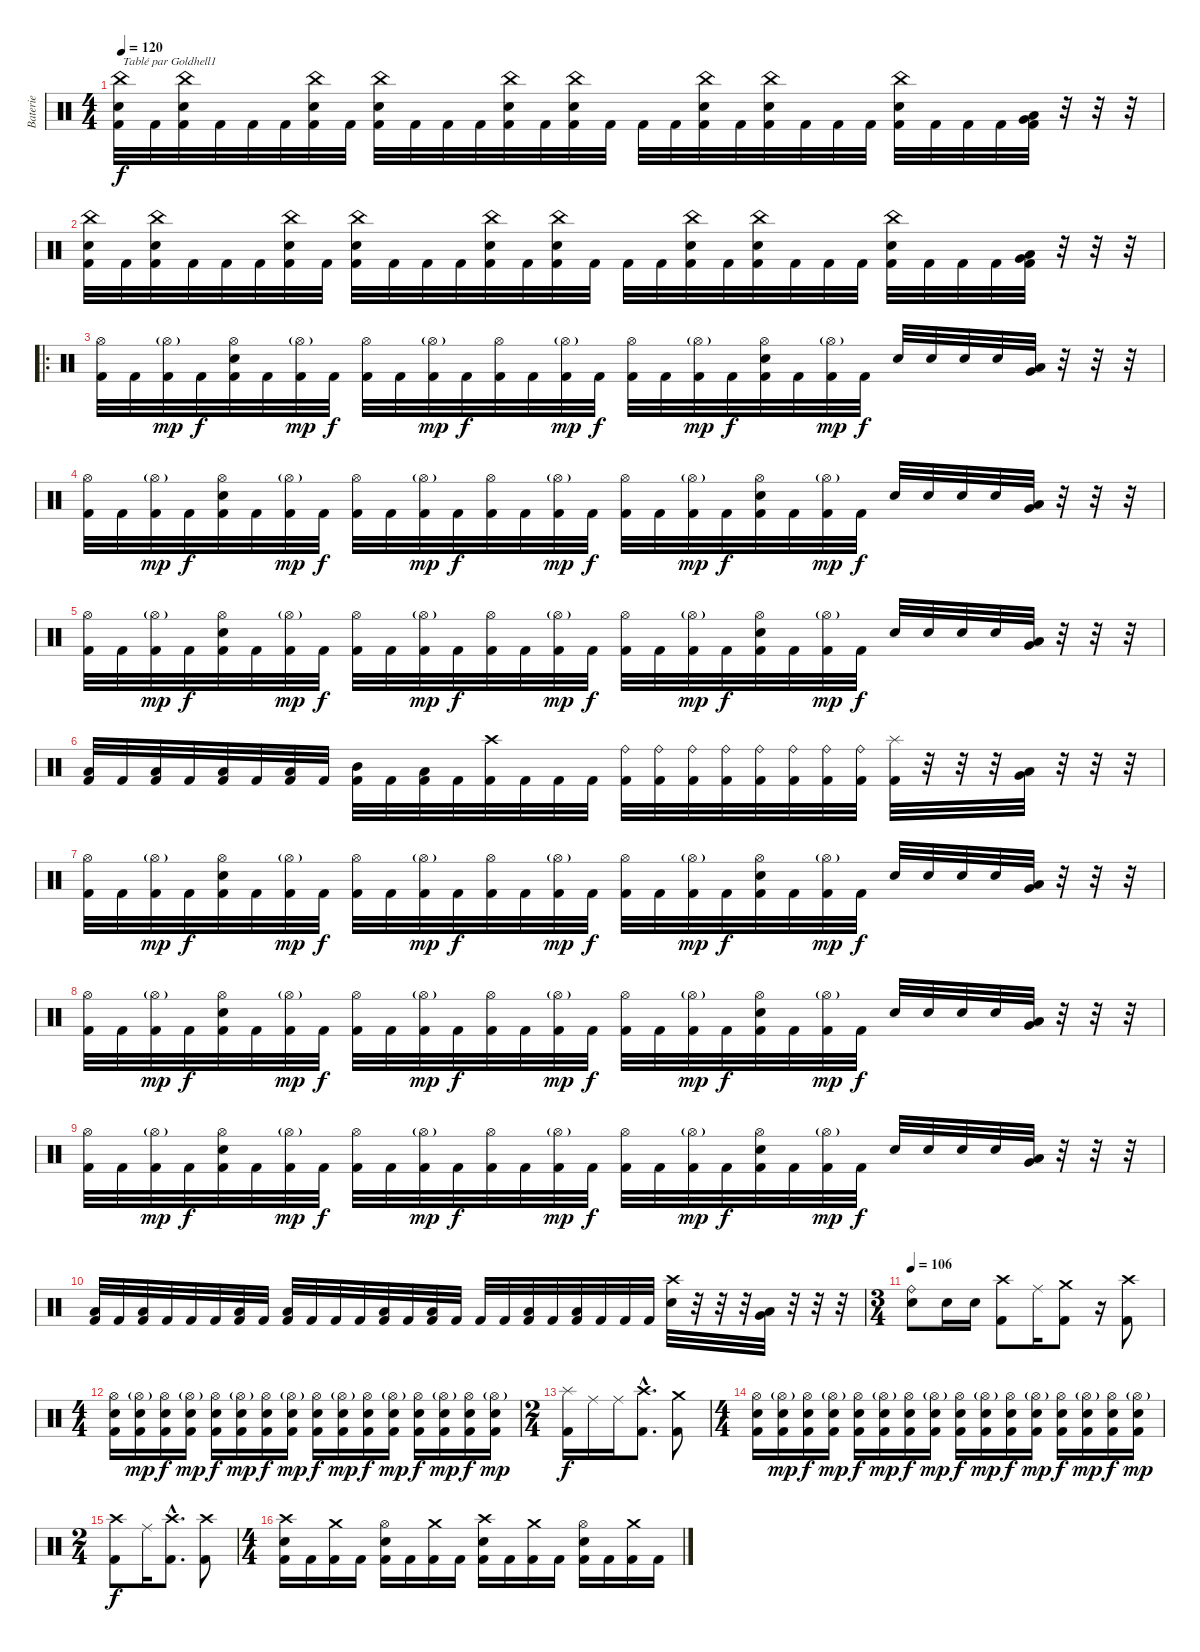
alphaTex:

\track ("Baterie" "Baterie") {instrument percussion}
\staff {score}
\articulation defaults
\ts (4 4)
\tempo 120
\clef neutral
\ks c
("China (hit)" "Electric Snare (hit)" "Kick (hit) 2").32{txt "Tablé par Goldhell1" dy f} "Kick (hit) 2".32 ("China (hit)" "Electric Snare (hit)" "Kick (hit) 2").32 "Kick (hit) 2".32 "Kick (hit) 2".32 "Kick (hit) 2".32 ("China (hit)" "Electric Snare (hit)" "Kick (hit) 2").32 "Kick (hit) 2".32 ("China (hit)" "Electric Snare (hit)" "Kick (hit) 2").32 "Kick (hit) 2".32 "Kick (hit) 2".32 "Kick (hit) 2".32 ("China (hit)" "Electric Snare (hit)" "Kick (hit) 2").32 "Kick (hit) 2".32 ("China (hit)" "Electric Snare (hit)" "Kick (hit) 2").32 "Kick (hit) 2".32 "Kick (hit) 2".32 "Kick (hit) 2".32 ("China (hit)" "Electric Snare (hit)" "Kick (hit) 2").32 "Kick (hit) 2".32 ("China (hit)" "Electric Snare (hit)" "Kick (hit) 2").32 "Kick (hit) 2".32 "Kick (hit) 2".32 "Kick (hit) 2".32 ("China (hit)" "Electric Snare (hit)" "Kick (hit) 2").32 "Kick (hit) 2".32 "Kick (hit) 2".32 "Kick (hit) 2".32 ("Low Tom (hit)" "Very Low Tom (hit)" "Kick (hit) 2").32 r.32 r.32 r.32 |
("China (hit)" "Electric Snare (hit)" "Kick (hit) 2").32 "Kick (hit) 2".32 ("China (hit)" "Electric Snare (hit)" "Kick (hit) 2").32 "Kick (hit) 2".32 "Kick (hit) 2".32 "Kick (hit) 2".32 ("China (hit)" "Electric Snare (hit)" "Kick (hit) 2").32 "Kick (hit) 2".32 ("China (hit)" "Electric Snare (hit)" "Kick (hit) 2").32 "Kick (hit) 2".32 "Kick (hit) 2".32 "Kick (hit) 2".32 ("China (hit)" "Electric Snare (hit)" "Kick (hit) 2").32 "Kick (hit) 2".32 ("China (hit)" "Electric Snare (hit)" "Kick (hit) 2").32 "Kick (hit) 2".32 "Kick (hit) 2".32 "Kick (hit) 2".32 ("China (hit)" "Electric Snare (hit)" "Kick (hit) 2").32 "Kick (hit) 2".32 ("China (hit)" "Electric Snare (hit)" "Kick (hit) 2").32 "Kick (hit) 2".32 "Kick (hit) 2".32 "Kick (hit) 2".32 ("China (hit)" "Electric Snare (hit)" "Kick (hit) 2").32 "Kick (hit) 2".32 "Kick (hit) 2".32 "Kick (hit) 2".32 ("Low Tom (hit)" "Very Low Tom (hit)" "Kick (hit) 2").32 r.32 r.32 r.32 |
\ro
("Hi-Hat (open)" "Kick (hit) 2").32 "Kick (hit) 2".32 ("Hi-Hat (open)"{g} "Kick (hit) 2").32{dy mp} "Kick (hit) 2".32{dy f} ("Hi-Hat (open)" "Electric Snare (hit)" "Kick (hit) 2").32 "Kick (hit) 2".32 ("Hi-Hat (open)"{g} "Kick (hit) 2").32{dy mp} "Kick (hit) 2".32{dy f} ("Hi-Hat (open)" "Kick (hit) 2").32 "Kick (hit) 2".32 ("Hi-Hat (open)"{g} "Kick (hit) 2").32{dy mp} "Kick (hit) 2".32{dy f} ("Hi-Hat (open)" "Kick (hit) 2").32 "Kick (hit) 2".32 ("Hi-Hat (open)"{g} "Kick (hit) 2").32{dy mp} "Kick (hit) 2".32{dy f} ("Hi-Hat (open)" "Kick (hit) 2").32 "Kick (hit) 2".32 ("Hi-Hat (open)"{g} "Kick (hit) 2").32{dy mp} "Kick (hit) 2".32{dy f} ("Hi-Hat (open)" "Electric Snare (hit)" "Kick (hit) 2").32 "Kick (hit) 2".32 ("Hi-Hat (open)"{g} "Kick (hit) 2").32{dy mp} "Kick (hit) 2".32{dy f} "Electric Snare (hit)".32 "Electric Snare (hit)".32 "Electric Snare (hit)".32 "Electric Snare (hit)".32 ("Very Low Tom (hit)" "Low Tom (hit)").32 r.32 r.32 r.32 |
("Hi-Hat (open)" "Kick (hit) 2").32 "Kick (hit) 2".32 ("Hi-Hat (open)"{g} "Kick (hit) 2").32{dy mp} "Kick (hit) 2".32{dy f} ("Hi-Hat (open)" "Electric Snare (hit)" "Kick (hit) 2").32 "Kick (hit) 2".32 ("Hi-Hat (open)"{g} "Kick (hit) 2").32{dy mp} "Kick (hit) 2".32{dy f} ("Hi-Hat (open)" "Kick (hit) 2").32 "Kick (hit) 2".32 ("Hi-Hat (open)"{g} "Kick (hit) 2").32{dy mp} "Kick (hit) 2".32{dy f} ("Hi-Hat (open)" "Kick (hit) 2").32 "Kick (hit) 2".32 ("Hi-Hat (open)"{g} "Kick (hit) 2").32{dy mp} "Kick (hit) 2".32{dy f} ("Hi-Hat (open)" "Kick (hit) 2").32 "Kick (hit) 2".32 ("Hi-Hat (open)"{g} "Kick (hit) 2").32{dy mp} "Kick (hit) 2".32{dy f} ("Hi-Hat (open)" "Electric Snare (hit)" "Kick (hit) 2").32 "Kick (hit) 2".32 ("Hi-Hat (open)"{g} "Kick (hit) 2").32{dy mp} "Kick (hit) 2".32{dy f} "Electric Snare (hit)".32 "Electric Snare (hit)".32 "Electric Snare (hit)".32 "Electric Snare (hit)".32 ("Very Low Tom (hit)" "Low Tom (hit)").32 r.32 r.32 r.32 |
("Hi-Hat (open)" "Kick (hit) 2").32 "Kick (hit) 2".32 ("Hi-Hat (open)"{g} "Kick (hit) 2").32{dy mp} "Kick (hit) 2".32{dy f} ("Hi-Hat (open)" "Electric Snare (hit)" "Kick (hit) 2").32 "Kick (hit) 2".32 ("Hi-Hat (open)"{g} "Kick (hit) 2").32{dy mp} "Kick (hit) 2".32{dy f} ("Hi-Hat (open)" "Kick (hit) 2").32 "Kick (hit) 2".32 ("Hi-Hat (open)"{g} "Kick (hit) 2").32{dy mp} "Kick (hit) 2".32{dy f} ("Hi-Hat (open)" "Kick (hit) 2").32 "Kick (hit) 2".32 ("Hi-Hat (open)"{g} "Kick (hit) 2").32{dy mp} "Kick (hit) 2".32{dy f} ("Hi-Hat (open)" "Kick (hit) 2").32 "Kick (hit) 2".32 ("Hi-Hat (open)"{g} "Kick (hit) 2").32{dy mp} "Kick (hit) 2".32{dy f} ("Hi-Hat (open)" "Electric Snare (hit)" "Kick (hit) 2").32 "Kick (hit) 2".32 ("Hi-Hat (open)"{g} "Kick (hit) 2").32{dy mp} "Kick (hit) 2".32{dy f} "Electric Snare (hit)".32 "Electric Snare (hit)".32 "Electric Snare (hit)".32 "Electric Snare (hit)".32 ("Very Low Tom (hit)" "Low Tom (hit)").32 r.32 r.32 r.32 |
("Low Tom (hit)" "Kick (hit) 2").32 "Kick (hit) 2".32 ("Low Tom (hit)" "Kick (hit) 2").32 "Kick (hit) 2".32 ("Low Tom (hit)" "Kick (hit) 2").32 "Kick (hit) 2".32 ("Low Tom (hit)" "Kick (hit) 2").32 "Kick (hit) 2".32 ("Mid Tom (hit)" "Kick (hit) 2").32 "Kick (hit) 2".32 ("Low Tom (hit)" "Kick (hit) 2").32 "Kick (hit) 2".32 ("Crash high (hit)" "Kick (hit) 2").32 "Kick (hit) 2".32 "Kick (hit) 2".32 "Kick (hit) 2".32 ("Ride (bell)" "Kick (hit) 2").32 ("Ride (bell)" "Kick (hit) 2").32 ("Ride (bell)" "Kick (hit) 2").32 ("Ride (bell)" "Kick (hit) 2").32 ("Ride (bell)" "Kick (hit) 2").32 ("Ride (bell)" "Kick (hit) 2").32 ("Ride (bell)" "Kick (hit) 2").32 ("Ride (bell)" "Kick (hit) 2").32 ("Splash (hit)" "Kick (hit) 2").32 r.32 r.32 r.32 ("Very Low Tom (hit)" "Low Tom (hit)").32 r.32 r.32 r.32 |
("Hi-Hat (open)" "Kick (hit) 2").32 "Kick (hit) 2".32 ("Hi-Hat (open)"{g} "Kick (hit) 2").32{dy mp} "Kick (hit) 2".32{dy f} ("Hi-Hat (open)" "Electric Snare (hit)" "Kick (hit) 2").32 "Kick (hit) 2".32 ("Hi-Hat (open)"{g} "Kick (hit) 2").32{dy mp} "Kick (hit) 2".32{dy f} ("Hi-Hat (open)" "Kick (hit) 2").32 "Kick (hit) 2".32 ("Hi-Hat (open)"{g} "Kick (hit) 2").32{dy mp} "Kick (hit) 2".32{dy f} ("Hi-Hat (open)" "Kick (hit) 2").32 "Kick (hit) 2".32 ("Hi-Hat (open)"{g} "Kick (hit) 2").32{dy mp} "Kick (hit) 2".32{dy f} ("Hi-Hat (open)" "Kick (hit) 2").32 "Kick (hit) 2".32 ("Hi-Hat (open)"{g} "Kick (hit) 2").32{dy mp} "Kick (hit) 2".32{dy f} ("Hi-Hat (open)" "Electric Snare (hit)" "Kick (hit) 2").32 "Kick (hit) 2".32 ("Hi-Hat (open)"{g} "Kick (hit) 2").32{dy mp} "Kick (hit) 2".32{dy f} "Electric Snare (hit)".32 "Electric Snare (hit)".32 "Electric Snare (hit)".32 "Electric Snare (hit)".32 ("Very Low Tom (hit)" "Low Tom (hit)").32 r.32 r.32 r.32 |
("Hi-Hat (open)" "Kick (hit) 2").32 "Kick (hit) 2".32 ("Hi-Hat (open)"{g} "Kick (hit) 2").32{dy mp} "Kick (hit) 2".32{dy f} ("Hi-Hat (open)" "Electric Snare (hit)" "Kick (hit) 2").32 "Kick (hit) 2".32 ("Hi-Hat (open)"{g} "Kick (hit) 2").32{dy mp} "Kick (hit) 2".32{dy f} ("Hi-Hat (open)" "Kick (hit) 2").32 "Kick (hit) 2".32 ("Hi-Hat (open)"{g} "Kick (hit) 2").32{dy mp} "Kick (hit) 2".32{dy f} ("Hi-Hat (open)" "Kick (hit) 2").32 "Kick (hit) 2".32 ("Hi-Hat (open)"{g} "Kick (hit) 2").32{dy mp} "Kick (hit) 2".32{dy f} ("Hi-Hat (open)" "Kick (hit) 2").32 "Kick (hit) 2".32 ("Hi-Hat (open)"{g} "Kick (hit) 2").32{dy mp} "Kick (hit) 2".32{dy f} ("Hi-Hat (open)" "Electric Snare (hit)" "Kick (hit) 2").32 "Kick (hit) 2".32 ("Hi-Hat (open)"{g} "Kick (hit) 2").32{dy mp} "Kick (hit) 2".32{dy f} "Electric Snare (hit)".32 "Electric Snare (hit)".32 "Electric Snare (hit)".32 "Electric Snare (hit)".32 ("Very Low Tom (hit)" "Low Tom (hit)").32 r.32 r.32 r.32 |
("Hi-Hat (open)" "Kick (hit) 2").32 "Kick (hit) 2".32 ("Hi-Hat (open)"{g} "Kick (hit) 2").32{dy mp} "Kick (hit) 2".32{dy f} ("Hi-Hat (open)" "Electric Snare (hit)" "Kick (hit) 2").32 "Kick (hit) 2".32 ("Hi-Hat (open)"{g} "Kick (hit) 2").32{dy mp} "Kick (hit) 2".32{dy f} ("Hi-Hat (open)" "Kick (hit) 2").32 "Kick (hit) 2".32 ("Hi-Hat (open)"{g} "Kick (hit) 2").32{dy mp} "Kick (hit) 2".32{dy f} ("Hi-Hat (open)" "Kick (hit) 2").32 "Kick (hit) 2".32 ("Hi-Hat (open)"{g} "Kick (hit) 2").32{dy mp} "Kick (hit) 2".32{dy f} ("Hi-Hat (open)" "Kick (hit) 2").32 "Kick (hit) 2".32 ("Hi-Hat (open)"{g} "Kick (hit) 2").32{dy mp} "Kick (hit) 2".32{dy f} ("Hi-Hat (open)" "Electric Snare (hit)" "Kick (hit) 2").32 "Kick (hit) 2".32 ("Hi-Hat (open)"{g} "Kick (hit) 2").32{dy mp} "Kick (hit) 2".32{dy f} "Electric Snare (hit)".32 "Electric Snare (hit)".32 "Electric Snare (hit)".32 "Electric Snare (hit)".32 ("Very Low Tom (hit)" "Low Tom (hit)").32 r.32 r.32 r.32 |
("Low Tom (hit)" "Kick (hit) 2").32 "Kick (hit) 2".32 ("Low Tom (hit)" "Kick (hit) 2").32 "Kick (hit) 2".32 "Kick (hit) 2".32 "Kick (hit) 2".32 ("Low Tom (hit)" "Kick (hit) 2").32 "Kick (hit) 2".32 ("Low Tom (hit)" "Kick (hit) 2").32 "Kick (hit) 2".32 "Kick (hit) 2".32 "Kick (hit) 2".32 ("Low Tom (hit)" "Kick (hit) 2").32 "Kick (hit) 2".32 ("Low Tom (hit)" "Kick (hit) 2").32 "Kick (hit) 2".32 "Kick (hit) 2".32 "Kick (hit) 2".32 ("Low Tom (hit)" "Kick (hit) 2").32 "Kick (hit) 2".32 ("Low Tom (hit)" "Kick (hit) 2").32 "Kick (hit) 2".32 "Kick (hit) 2".32 "Kick (hit) 2".32 ("Crash high (hit)" "Electric Snare (hit)").32 r.32 r.32 r.32 ("Very Low Tom (hit)" "Low Tom (hit)").32 r.32 r.32 r.32 |
\ts (3 4)
\tempo 106
("Electric Snare (hit)" "Ride (bell)").8 "Electric Snare (hit)".16 "Electric Snare (hit)".16 ("Crash high (hit)" "Kick (hit) 2").8 "Ride (middle)".16 ("Crash medium (hit)" "Kick (hit) 2").8 r.16 ("Crash high (hit)" "Kick (hit) 2").8 |
\ts (4 4)
("Hi-Hat (open)" "Kick (hit) 2" "Electric Snare (hit)").16 ("Hi-Hat (open)"{g} "Kick (hit) 2" "Electric Snare (hit)").16{dy mp} ("Hi-Hat (open)" "Kick (hit) 2" "Electric Snare (hit)").16{dy f} ("Hi-Hat (open)"{g} "Kick (hit) 2" "Electric Snare (hit)").16{dy mp} ("Hi-Hat (open)" "Kick (hit) 2" "Electric Snare (hit)").16{dy f} ("Hi-Hat (open)"{g} "Kick (hit) 2" "Electric Snare (hit)").16{dy mp} ("Hi-Hat (open)" "Kick (hit) 2" "Electric Snare (hit)").16{dy f} ("Hi-Hat (open)"{g} "Kick (hit) 2" "Electric Snare (hit)").16{dy mp} ("Hi-Hat (open)" "Kick (hit) 2" "Electric Snare (hit)").16{dy f} ("Hi-Hat (open)"{g} "Kick (hit) 2" "Electric Snare (hit)").16{dy mp} ("Hi-Hat (open)" "Kick (hit) 2" "Electric Snare (hit)").16{dy f} ("Hi-Hat (open)"{g} "Kick (hit) 2" "Electric Snare (hit)").16{dy mp} ("Hi-Hat (open)" "Kick (hit) 2" "Electric Snare (hit)").16{dy f} ("Hi-Hat (open)"{g} "Kick (hit) 2" "Electric Snare (hit)").16{dy mp} ("Hi-Hat (open)" "Kick (hit) 2" "Electric Snare (hit)").16{dy f} ("Hi-Hat (open)"{g} "Kick (hit) 2" "Electric Snare (hit)").16{dy mp} |
\ts (2 4)
("Splash (hit)" "Kick (hit) 2").16{dy f} "Ride (middle)".16 "Ride (middle)".16 ("Crash high (hit)"{hac} "Kick (hit) 2"{hac}).8{d} ("Crash medium (hit)" "Kick (hit) 2").8 |
\ts (4 4)
("Hi-Hat (open)" "Kick (hit) 2" "Electric Snare (hit)").16 ("Hi-Hat (open)"{g} "Kick (hit) 2" "Electric Snare (hit)").16{dy mp} ("Hi-Hat (open)" "Kick (hit) 2" "Electric Snare (hit)").16{dy f} ("Hi-Hat (open)"{g} "Kick (hit) 2" "Electric Snare (hit)").16{dy mp} ("Hi-Hat (open)" "Kick (hit) 2" "Electric Snare (hit)").16{dy f} ("Hi-Hat (open)"{g} "Kick (hit) 2" "Electric Snare (hit)").16{dy mp} ("Hi-Hat (open)" "Kick (hit) 2" "Electric Snare (hit)").16{dy f} ("Hi-Hat (open)"{g} "Kick (hit) 2" "Electric Snare (hit)").16{dy mp} ("Hi-Hat (open)" "Kick (hit) 2" "Electric Snare (hit)").16{dy f} ("Hi-Hat (open)"{g} "Kick (hit) 2" "Electric Snare (hit)").16{dy mp} ("Hi-Hat (open)" "Kick (hit) 2" "Electric Snare (hit)").16{dy f} ("Hi-Hat (open)"{g} "Kick (hit) 2" "Electric Snare (hit)").16{dy mp} ("Hi-Hat (open)" "Kick (hit) 2" "Electric Snare (hit)").16{dy f} ("Hi-Hat (open)"{g} "Kick (hit) 2" "Electric Snare (hit)").16{dy mp} ("Hi-Hat (open)" "Kick (hit) 2" "Electric Snare (hit)").16{dy f} ("Hi-Hat (open)"{g} "Kick (hit) 2" "Electric Snare (hit)").16{dy mp} |
\ts (2 4)
("Crash high (hit)" "Kick (hit) 2").8{dy f} "Ride (middle)".16 ("Crash high (hit)"{hac} "Kick (hit) 2"{hac}).8{d} ("Crash high (hit)" "Kick (hit) 2").8 |
\ts (4 4)
("Crash high (hit)" "Kick (hit) 2" "Electric Snare (hit)").16 "Kick (hit) 2".16 ("Crash medium (hit)" "Kick (hit) 2").16 "Kick (hit) 2".16 ("Hi-Hat (open)" "Kick (hit) 2" "Electric Snare (hit)").16 "Kick (hit) 2".16 ("Crash medium (hit)" "Kick (hit) 2").16 "Kick (hit) 2".16 ("Crash high (hit)" "Kick (hit) 2" "Electric Snare (hit)").16 "Kick (hit) 2".16 ("Crash medium (hit)" "Kick (hit) 2").16 "Kick (hit) 2".16 ("Hi-Hat (open)" "Kick (hit) 2" "Electric Snare (hit)").16 "Kick (hit) 2".16 ("Crash medium (hit)" "Kick (hit) 2").16 "Kick (hit) 2".16
